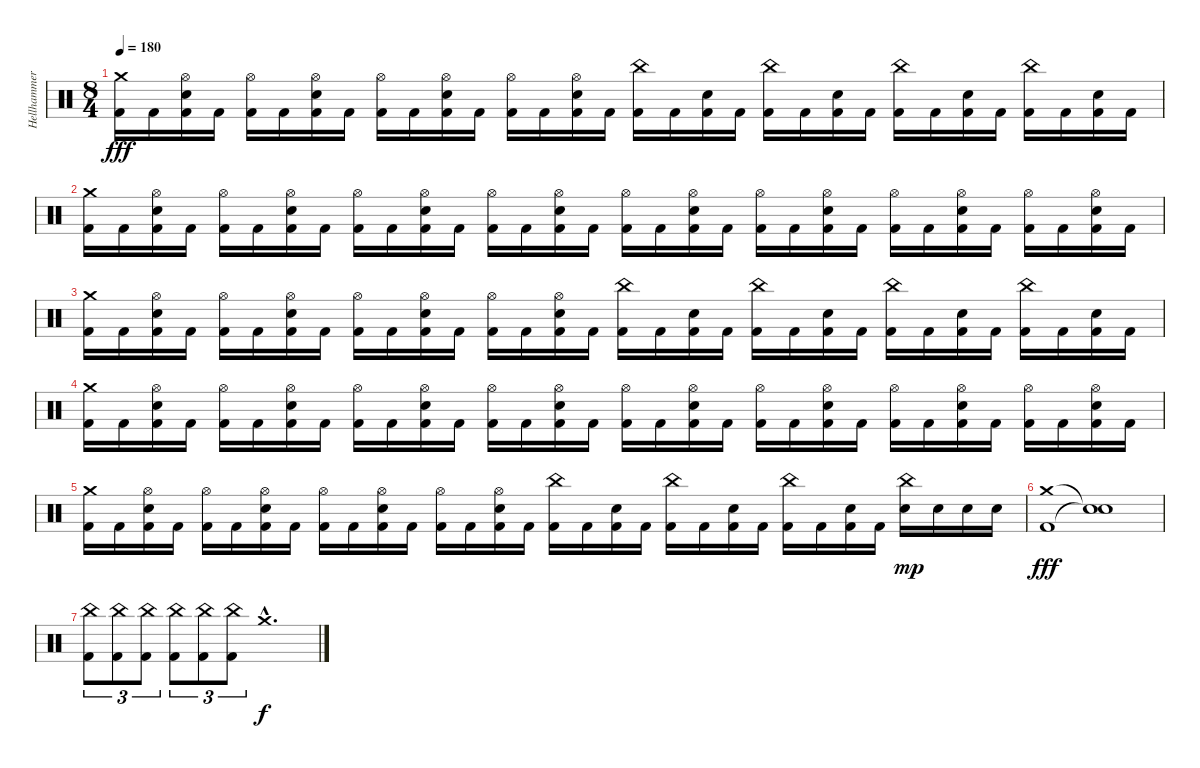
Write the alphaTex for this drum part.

\track ("Hellhammer (Drums)" "Hellhammer") {instrument percussion}
\staff {score}
\articulation defaults
\ts (8 4)
\tempo 180
\clef neutral
\ks c
("Crash medium (hit)" "Kick (hit) 2").16{dy fff} "Kick (hit) 2".16 ("Hi-Hat (open)" "Electric Snare (hit)" "Kick (hit) 2").16 "Kick (hit) 2".16 ("Hi-Hat (open)" "Kick (hit) 2").16 "Kick (hit) 2".16 ("Hi-Hat (open)" "Electric Snare (hit)" "Kick (hit) 2").16 "Kick (hit) 2".16 ("Hi-Hat (open)" "Kick (hit) 2").16 "Kick (hit) 2".16 ("Hi-Hat (open)" "Electric Snare (hit)" "Kick (hit) 2").16 "Kick (hit) 2".16 ("Hi-Hat (open)" "Kick (hit) 2").16 "Kick (hit) 2".16 ("Hi-Hat (open)" "Electric Snare (hit)" "Kick (hit) 2").16 "Kick (hit) 2".16 ("China (hit)" "Kick (hit) 2").16 "Kick (hit) 2".16 ("Electric Snare (hit)" "Kick (hit) 2").16 "Kick (hit) 2".16 ("China (hit)" "Kick (hit) 2").16 "Kick (hit) 2".16 ("Electric Snare (hit)" "Kick (hit) 2").16 "Kick (hit) 2".16 ("China (hit)" "Kick (hit) 2").16 "Kick (hit) 2".16 ("Electric Snare (hit)" "Kick (hit) 2").16 "Kick (hit) 2".16 ("China (hit)" "Kick (hit) 2").16 "Kick (hit) 2".16 ("Electric Snare (hit)" "Kick (hit) 2").16 "Kick (hit) 2".16 |
("Crash medium (hit)" "Kick (hit) 2").16 "Kick (hit) 2".16 ("Hi-Hat (open)" "Electric Snare (hit)" "Kick (hit) 2").16 "Kick (hit) 2".16 ("Hi-Hat (open)" "Kick (hit) 2").16 "Kick (hit) 2".16 ("Hi-Hat (open)" "Electric Snare (hit)" "Kick (hit) 2").16 "Kick (hit) 2".16 ("Hi-Hat (open)" "Kick (hit) 2").16 "Kick (hit) 2".16 ("Hi-Hat (open)" "Electric Snare (hit)" "Kick (hit) 2").16 "Kick (hit) 2".16 ("Hi-Hat (open)" "Kick (hit) 2").16 "Kick (hit) 2".16 ("Hi-Hat (open)" "Electric Snare (hit)" "Kick (hit) 2").16 "Kick (hit) 2".16 ("Hi-Hat (open)" "Kick (hit) 2").16 "Kick (hit) 2".16 ("Hi-Hat (open)" "Electric Snare (hit)" "Kick (hit) 2").16 "Kick (hit) 2".16 ("Hi-Hat (open)" "Kick (hit) 2").16 "Kick (hit) 2".16 ("Hi-Hat (open)" "Electric Snare (hit)" "Kick (hit) 2").16 "Kick (hit) 2".16 ("Hi-Hat (open)" "Kick (hit) 2").16 "Kick (hit) 2".16 ("Hi-Hat (open)" "Electric Snare (hit)" "Kick (hit) 2").16 "Kick (hit) 2".16 ("Hi-Hat (open)" "Kick (hit) 2").16 "Kick (hit) 2".16 ("Hi-Hat (open)" "Electric Snare (hit)" "Kick (hit) 2").16 "Kick (hit) 2".16 |
("Crash medium (hit)" "Kick (hit) 2").16 "Kick (hit) 2".16 ("Hi-Hat (open)" "Electric Snare (hit)" "Kick (hit) 2").16 "Kick (hit) 2".16 ("Hi-Hat (open)" "Kick (hit) 2").16 "Kick (hit) 2".16 ("Hi-Hat (open)" "Electric Snare (hit)" "Kick (hit) 2").16 "Kick (hit) 2".16 ("Hi-Hat (open)" "Kick (hit) 2").16 "Kick (hit) 2".16 ("Hi-Hat (open)" "Electric Snare (hit)" "Kick (hit) 2").16 "Kick (hit) 2".16 ("Hi-Hat (open)" "Kick (hit) 2").16 "Kick (hit) 2".16 ("Hi-Hat (open)" "Electric Snare (hit)" "Kick (hit) 2").16 "Kick (hit) 2".16 ("China (hit)" "Kick (hit) 2").16 "Kick (hit) 2".16 ("Electric Snare (hit)" "Kick (hit) 2").16 "Kick (hit) 2".16 ("China (hit)" "Kick (hit) 2").16 "Kick (hit) 2".16 ("Electric Snare (hit)" "Kick (hit) 2").16 "Kick (hit) 2".16 ("China (hit)" "Kick (hit) 2").16 "Kick (hit) 2".16 ("Electric Snare (hit)" "Kick (hit) 2").16 "Kick (hit) 2".16 ("China (hit)" "Kick (hit) 2").16 "Kick (hit) 2".16 ("Electric Snare (hit)" "Kick (hit) 2").16 "Kick (hit) 2".16 |
("Crash medium (hit)" "Kick (hit) 2").16 "Kick (hit) 2".16 ("Hi-Hat (open)" "Electric Snare (hit)" "Kick (hit) 2").16 "Kick (hit) 2".16 ("Hi-Hat (open)" "Kick (hit) 2").16 "Kick (hit) 2".16 ("Hi-Hat (open)" "Electric Snare (hit)" "Kick (hit) 2").16 "Kick (hit) 2".16 ("Hi-Hat (open)" "Kick (hit) 2").16 "Kick (hit) 2".16 ("Hi-Hat (open)" "Electric Snare (hit)" "Kick (hit) 2").16 "Kick (hit) 2".16 ("Hi-Hat (open)" "Kick (hit) 2").16 "Kick (hit) 2".16 ("Hi-Hat (open)" "Electric Snare (hit)" "Kick (hit) 2").16 "Kick (hit) 2".16 ("Hi-Hat (open)" "Kick (hit) 2").16 "Kick (hit) 2".16 ("Hi-Hat (open)" "Electric Snare (hit)" "Kick (hit) 2").16 "Kick (hit) 2".16 ("Hi-Hat (open)" "Kick (hit) 2").16 "Kick (hit) 2".16 ("Hi-Hat (open)" "Electric Snare (hit)" "Kick (hit) 2").16 "Kick (hit) 2".16 ("Hi-Hat (open)" "Kick (hit) 2").16 "Kick (hit) 2".16 ("Hi-Hat (open)" "Electric Snare (hit)" "Kick (hit) 2").16 "Kick (hit) 2".16 ("Hi-Hat (open)" "Kick (hit) 2").16 "Kick (hit) 2".16 ("Hi-Hat (open)" "Electric Snare (hit)" "Kick (hit) 2").16 "Kick (hit) 2".16 |
("Crash medium (hit)" "Kick (hit) 2").16 "Kick (hit) 2".16 ("Hi-Hat (open)" "Electric Snare (hit)" "Kick (hit) 2").16 "Kick (hit) 2".16 ("Hi-Hat (open)" "Kick (hit) 2").16 "Kick (hit) 2".16 ("Hi-Hat (open)" "Electric Snare (hit)" "Kick (hit) 2").16 "Kick (hit) 2".16 ("Hi-Hat (open)" "Kick (hit) 2").16 "Kick (hit) 2".16 ("Hi-Hat (open)" "Electric Snare (hit)" "Kick (hit) 2").16 "Kick (hit) 2".16 ("Hi-Hat (open)" "Kick (hit) 2").16 "Kick (hit) 2".16 ("Hi-Hat (open)" "Electric Snare (hit)" "Kick (hit) 2").16 "Kick (hit) 2".16 ("China (hit)" "Kick (hit) 2").16 "Kick (hit) 2".16 ("Electric Snare (hit)" "Kick (hit) 2").16 "Kick (hit) 2".16 ("China (hit)" "Kick (hit) 2").16 "Kick (hit) 2".16 ("Electric Snare (hit)" "Kick (hit) 2").16 "Kick (hit) 2".16 ("China (hit)" "Kick (hit) 2").16 "Kick (hit) 2".16 ("Electric Snare (hit)" "Kick (hit) 2").16 "Kick (hit) 2".16 ("China (hit)" "Electric Snare (hit)").16{dy mp} "Electric Snare (hit)".16 "Electric Snare (hit)".16 "Electric Snare (hit)".16 |
("Crash medium (hit)" "Kick (hit) 2").1{dy fff} ("Snare (hit)"{t} "Snare (hit)"{t}).1 |
("China (hit)" "Kick (hit) 2").8{tu (3 2)} ("China (hit)" "Kick (hit) 2").8{tu (3 2)} ("China (hit)" "Kick (hit) 2").8{tu (3 2)} ("China (hit)" "Kick (hit) 2").8{tu (3 2)} ("China (hit)" "Kick (hit) 2").8{tu (3 2)} ("China (hit)" "Kick (hit) 2").8{tu (3 2)} "Crash medium (hit)"{hac}.1{d dy f}
